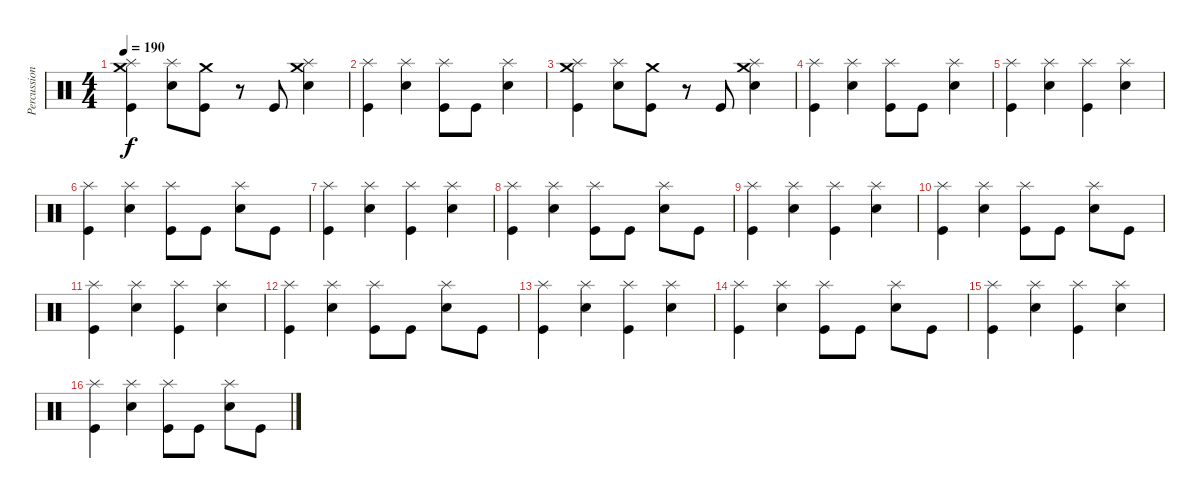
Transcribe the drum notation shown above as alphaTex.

\track ("Percussion" "Percussion") {instrument percussion}
\staff {score}
\articulation defaults
\ts (4 4)
\tempo 190
\clef neutral
\ks c
("Crash medium (hit)" "Splash (hit)" "Kick (hit)").4{dy f} ("Splash (hit)" "Electric Snare (hit)").8 ("Crash medium (hit)" "Kick (hit)").8 r.8 "Kick (hit)".8 ("Crash medium (hit)" "Splash (hit)" "Electric Snare (hit)").4 |
("Splash (hit)" "Kick (hit)").4 ("Splash (hit)" "Electric Snare (hit)").4 ("Splash (hit)" "Kick (hit)").8 "Kick (hit)".8 ("Splash (hit)" "Electric Snare (hit)").4 |
("Crash medium (hit)" "Splash (hit)" "Kick (hit)").4 ("Splash (hit)" "Electric Snare (hit)").8 ("Crash medium (hit)" "Kick (hit)").8 r.8 "Kick (hit)".8 ("Crash medium (hit)" "Splash (hit)" "Electric Snare (hit)").4 |
("Splash (hit)" "Kick (hit)").4 ("Splash (hit)" "Electric Snare (hit)").4 ("Splash (hit)" "Kick (hit)").8 "Kick (hit)".8 ("Splash (hit)" "Electric Snare (hit)").4 |
("Splash (hit)" "Kick (hit)").4 ("Splash (hit)" "Electric Snare (hit)").4 ("Splash (hit)" "Kick (hit)").4 ("Splash (hit)" "Electric Snare (hit)").4 |
("Splash (hit)" "Kick (hit)").4 ("Splash (hit)" "Electric Snare (hit)").4 ("Splash (hit)" "Kick (hit)").8 "Kick (hit)".8 ("Splash (hit)" "Electric Snare (hit)").8 "Kick (hit)".8 |
("Splash (hit)" "Kick (hit)").4 ("Splash (hit)" "Electric Snare (hit)").4 ("Splash (hit)" "Kick (hit)").4 ("Splash (hit)" "Electric Snare (hit)").4 |
("Splash (hit)" "Kick (hit)").4 ("Splash (hit)" "Electric Snare (hit)").4 ("Splash (hit)" "Kick (hit)").8 "Kick (hit)".8 ("Splash (hit)" "Electric Snare (hit)").8 "Kick (hit)".8 |
("Splash (hit)" "Kick (hit)").4 ("Splash (hit)" "Electric Snare (hit)").4 ("Splash (hit)" "Kick (hit)").4 ("Splash (hit)" "Electric Snare (hit)").4 |
("Splash (hit)" "Kick (hit)").4 ("Splash (hit)" "Electric Snare (hit)").4 ("Splash (hit)" "Kick (hit)").8 "Kick (hit)".8 ("Splash (hit)" "Electric Snare (hit)").8 "Kick (hit)".8 |
("Splash (hit)" "Kick (hit)").4 ("Splash (hit)" "Electric Snare (hit)").4 ("Splash (hit)" "Kick (hit)").4 ("Splash (hit)" "Electric Snare (hit)").4 |
("Splash (hit)" "Kick (hit)").4 ("Splash (hit)" "Electric Snare (hit)").4 ("Splash (hit)" "Kick (hit)").8 "Kick (hit)".8 ("Splash (hit)" "Electric Snare (hit)").8 "Kick (hit)".8 |
("Splash (hit)" "Kick (hit)").4 ("Splash (hit)" "Electric Snare (hit)").4 ("Splash (hit)" "Kick (hit)").4 ("Splash (hit)" "Electric Snare (hit)").4 |
("Splash (hit)" "Kick (hit)").4 ("Splash (hit)" "Electric Snare (hit)").4 ("Splash (hit)" "Kick (hit)").8 "Kick (hit)".8 ("Splash (hit)" "Electric Snare (hit)").8 "Kick (hit)".8 |
("Splash (hit)" "Kick (hit)").4 ("Splash (hit)" "Electric Snare (hit)").4 ("Splash (hit)" "Kick (hit)").4 ("Splash (hit)" "Electric Snare (hit)").4 |
("Splash (hit)" "Kick (hit)").4 ("Splash (hit)" "Electric Snare (hit)").4 ("Splash (hit)" "Kick (hit)").8 "Kick (hit)".8 ("Splash (hit)" "Electric Snare (hit)").8 "Kick (hit)".8
